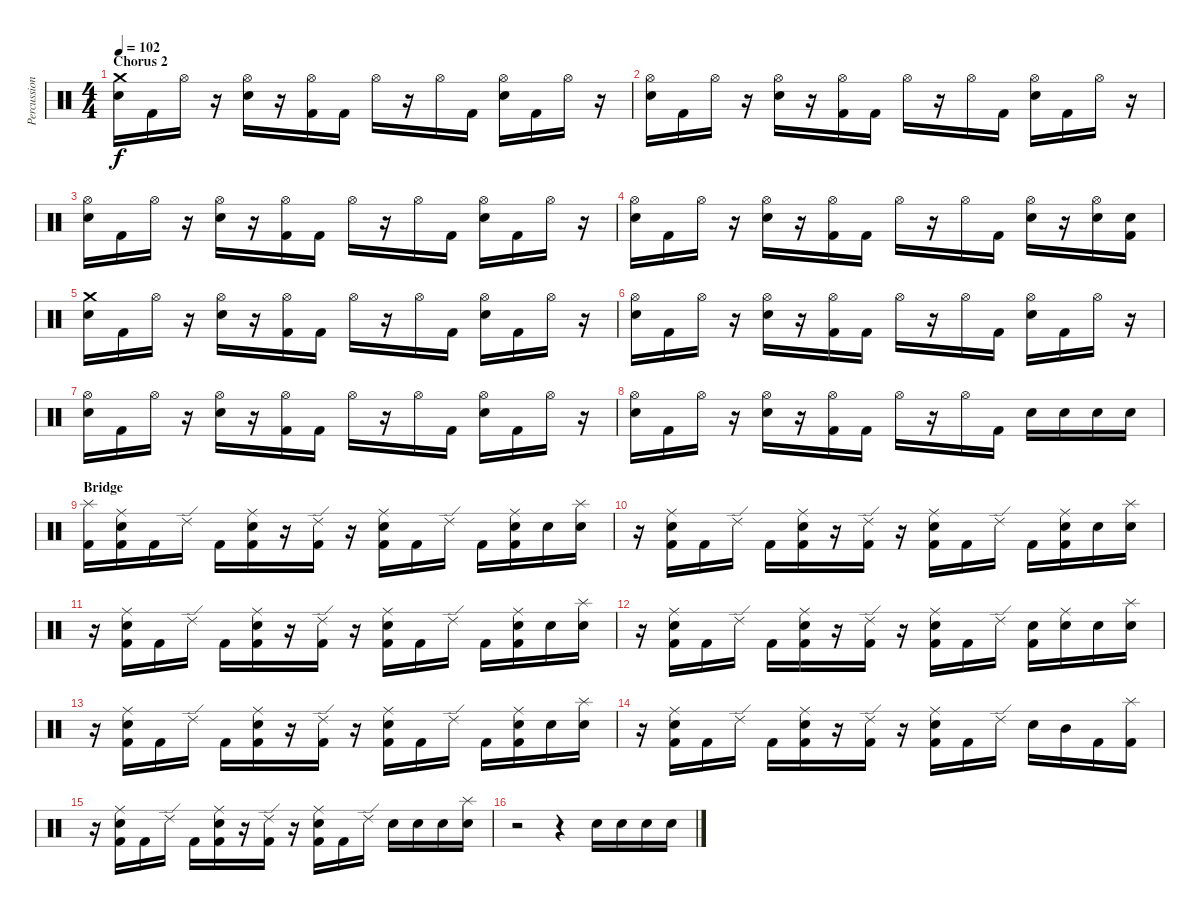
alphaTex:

\track ("Percussion" "Percussion") {instrument percussion}
\staff {score}
\articulation defaults
\ts (4 4)
\section ("" "Chorus 2")
\tempo 102
\clef neutral
\ks c
("Crash medium (hit)" "Snare (hit) 2").16{dy f} "Kick (hit) 2".16 "Hi-Hat (open)".16 r.16 ("Hi-Hat (open)" "Snare (hit) 2").16 r.16 ("Hi-Hat (open)" "Kick (hit) 2").16 "Kick (hit) 2".16 "Hi-Hat (open)".16 r.16 "Hi-Hat (open)".16 "Kick (hit) 2".16 ("Hi-Hat (open)" "Snare (hit) 2").16 "Kick (hit) 2".16 "Hi-Hat (open)".16 r.16 |
("Hi-Hat (open)" "Snare (hit) 2").16 "Kick (hit) 2".16 "Hi-Hat (open)".16 r.16 ("Hi-Hat (open)" "Snare (hit) 2").16 r.16 ("Hi-Hat (open)" "Kick (hit) 2").16 "Kick (hit) 2".16 "Hi-Hat (open)".16 r.16 "Hi-Hat (open)".16 "Kick (hit) 2".16 ("Hi-Hat (open)" "Snare (hit) 2").16 "Kick (hit) 2".16 "Hi-Hat (open)".16 r.16 |
("Hi-Hat (open)" "Snare (hit) 2").16 "Kick (hit) 2".16 "Hi-Hat (open)".16 r.16 ("Hi-Hat (open)" "Snare (hit) 2").16 r.16 ("Hi-Hat (open)" "Kick (hit) 2").16 "Kick (hit) 2".16 "Hi-Hat (open)".16 r.16 "Hi-Hat (open)".16 "Kick (hit) 2".16 ("Hi-Hat (open)" "Snare (hit) 2").16 "Kick (hit) 2".16 "Hi-Hat (open)".16 r.16 |
("Hi-Hat (open)" "Snare (hit) 2").16 "Kick (hit) 2".16 "Hi-Hat (open)".16 r.16 ("Hi-Hat (open)" "Snare (hit) 2").16 r.16 ("Hi-Hat (open)" "Kick (hit) 2").16 "Kick (hit) 2".16 "Hi-Hat (open)".16 r.16 "Hi-Hat (open)".16 "Kick (hit) 2".16 ("Hi-Hat (open)" "Snare (hit) 2").16 r.16 ("Hi-Hat (open)" "Snare (hit) 2").16 ("Snare (hit) 2" "Kick (hit) 2").16 |
("Crash medium (hit)" "Snare (hit) 2").16 "Kick (hit) 2".16 "Hi-Hat (open)".16 r.16 ("Hi-Hat (open)" "Snare (hit) 2").16 r.16 ("Hi-Hat (open)" "Kick (hit) 2").16 "Kick (hit) 2".16 "Hi-Hat (open)".16 r.16 "Hi-Hat (open)".16 "Kick (hit) 2".16 ("Hi-Hat (open)" "Snare (hit) 2").16 "Kick (hit) 2".16 "Hi-Hat (open)".16 r.16 |
("Hi-Hat (open)" "Snare (hit) 2").16 "Kick (hit) 2".16 "Hi-Hat (open)".16 r.16 ("Hi-Hat (open)" "Snare (hit) 2").16 r.16 ("Hi-Hat (open)" "Kick (hit) 2").16 "Kick (hit) 2".16 "Hi-Hat (open)".16 r.16 "Hi-Hat (open)".16 "Kick (hit) 2".16 ("Hi-Hat (open)" "Snare (hit) 2").16 "Kick (hit) 2".16 "Hi-Hat (open)".16 r.16 |
("Hi-Hat (open)" "Snare (hit) 2").16 "Kick (hit) 2".16 "Hi-Hat (open)".16 r.16 ("Hi-Hat (open)" "Snare (hit) 2").16 r.16 ("Hi-Hat (open)" "Kick (hit) 2").16 "Kick (hit) 2".16 "Hi-Hat (open)".16 r.16 "Hi-Hat (open)".16 "Kick (hit) 2".16 ("Hi-Hat (open)" "Snare (hit) 2").16 "Kick (hit) 2".16 "Hi-Hat (open)".16 r.16 |
("Hi-Hat (open)" "Snare (hit) 2").16 "Kick (hit) 2".16 "Hi-Hat (open)".16 r.16 ("Hi-Hat (open)" "Snare (hit) 2").16 r.16 ("Hi-Hat (open)" "Kick (hit) 2").16 "Kick (hit) 2".16 "Hi-Hat (open)".16 r.16 "Hi-Hat (open)".16 "Kick (hit) 2".16 "Snare (hit) 2".16 "Snare (hit) 2".16 "Snare (hit) 2".16 "Snare (hit) 2".16 |
\section ("" "Bridge")
("Splash (hit)" "Kick (hit) 2").16 ("Ride (middle)" "Snare (hit) 2" "Kick (hit) 2").16 "Kick (hit) 2".16 "Ride (edge) 2".16 "Kick (hit) 2".16 ("Ride (middle)" "Snare (hit) 2" "Kick (hit) 2").16 r.16 ("Ride (edge) 2" "Kick (hit) 2").16 r.16 ("Ride (middle)" "Snare (hit) 2" "Kick (hit) 2").16 "Kick (hit) 2".16 "Ride (edge) 2".16 "Kick (hit) 2".16 ("Ride (middle)" "Snare (hit) 2" "Kick (hit) 2").16 "Snare (hit) 2".16 ("Splash (hit)" "Snare (hit) 2").16 |
r.16 ("Ride (middle)" "Snare (hit) 2" "Kick (hit) 2").16 "Kick (hit) 2".16 "Ride (edge) 2".16 "Kick (hit) 2".16 ("Ride (middle)" "Snare (hit) 2" "Kick (hit) 2").16 r.16 ("Ride (edge) 2" "Kick (hit) 2").16 r.16 ("Ride (middle)" "Snare (hit) 2" "Kick (hit) 2").16 "Kick (hit) 2".16 "Ride (edge) 2".16 "Kick (hit) 2".16 ("Ride (middle)" "Snare (hit) 2" "Kick (hit) 2").16 "Snare (hit) 2".16 ("Splash (hit)" "Snare (hit) 2").16 |
r.16 ("Ride (middle)" "Snare (hit) 2" "Kick (hit) 2").16 "Kick (hit) 2".16 "Ride (edge) 2".16 "Kick (hit) 2".16 ("Ride (middle)" "Snare (hit) 2" "Kick (hit) 2").16 r.16 ("Ride (edge) 2" "Kick (hit) 2").16 r.16 ("Ride (middle)" "Snare (hit) 2" "Kick (hit) 2").16 "Kick (hit) 2".16 "Ride (edge) 2".16 "Kick (hit) 2".16 ("Ride (middle)" "Snare (hit) 2" "Kick (hit) 2").16 "Snare (hit) 2".16 ("Splash (hit)" "Snare (hit) 2").16 |
r.16 ("Ride (middle)" "Snare (hit) 2" "Kick (hit) 2").16 "Kick (hit) 2".16 "Ride (edge) 2".16 "Kick (hit) 2".16 ("Ride (middle)" "Snare (hit) 2" "Kick (hit) 2").16 r.16 ("Ride (edge) 2" "Kick (hit) 2").16 r.16 ("Ride (middle)" "Snare (hit) 2" "Kick (hit) 2").16 "Kick (hit) 2".16 "Ride (edge) 2".16 ("Snare (hit) 2" "Kick (hit) 2").16 ("Ride (middle)" "Snare (hit) 2").16 "Snare (hit) 2".16 ("Splash (hit)" "Snare (hit) 2").16 |
r.16 ("Ride (middle)" "Snare (hit) 2" "Kick (hit) 2").16 "Kick (hit) 2".16 "Ride (edge) 2".16 "Kick (hit) 2".16 ("Ride (middle)" "Snare (hit) 2" "Kick (hit) 2").16 r.16 ("Ride (edge) 2" "Kick (hit) 2").16 r.16 ("Ride (middle)" "Snare (hit) 2" "Kick (hit) 2").16 "Kick (hit) 2".16 "Ride (edge) 2".16 "Kick (hit) 2".16 ("Ride (middle)" "Snare (hit) 2" "Kick (hit) 2").16 "Snare (hit) 2".16 ("Splash (hit)" "Snare (hit) 2").16 |
r.16 ("Ride (middle)" "Snare (hit) 2" "Kick (hit) 2").16 "Kick (hit) 2".16 "Ride (edge) 2".16 "Kick (hit) 2".16 ("Ride (middle)" "Snare (hit) 2" "Kick (hit) 2").16 r.16 ("Ride (edge) 2" "Kick (hit) 2").16 r.16 ("Ride (middle)" "Snare (hit) 2" "Kick (hit) 2").16 "Kick (hit) 2".16 "Ride (edge) 2".16 "Snare (hit) 2".16 "Mid Tom (hit)".16 "Kick (hit) 2".16 ("Splash (hit)" "Kick (hit) 2").16 |
r.16 ("Ride (middle)" "Snare (hit) 2" "Kick (hit) 2").16 "Kick (hit) 2".16 "Ride (edge) 2".16 "Kick (hit) 2".16 ("Ride (middle)" "Snare (hit) 2" "Kick (hit) 2").16 r.16 ("Ride (edge) 2" "Kick (hit) 2").16 r.16 ("Ride (middle)" "Snare (hit) 2" "Kick (hit) 2").16 "Kick (hit) 2".16 "Ride (edge) 2".16 "Snare (hit) 2".16 "Snare (hit) 2".16 "Snare (hit) 2".16 ("Splash (hit)" "Snare (hit) 2").16 |
r.2 r.4 "Snare (hit) 2".16 "Snare (hit) 2".16 "Snare (hit) 2".16 "Snare (hit) 2".16
